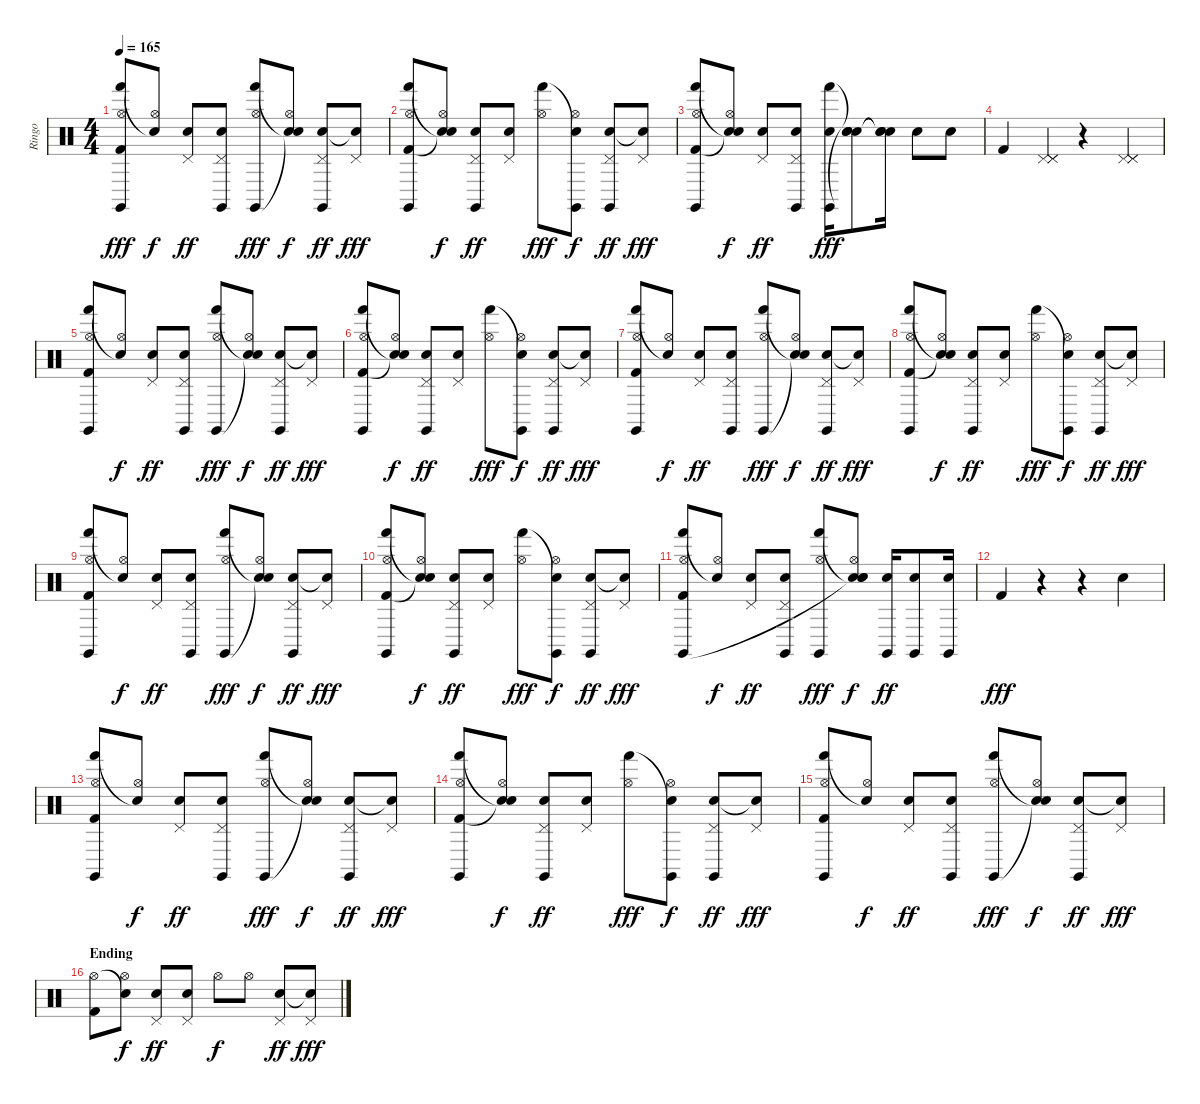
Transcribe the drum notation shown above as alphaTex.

\track ("Ringo" "Ringo") {instrument percussion}
\staff {score}
\articulation defaults
\ts (4 4)
\tempo 165
\clef neutral
\ks c
("Hand (hit)" "Hi-Hat (open)" "Kick (hit) 2" "Claves (hit)").8{dy fff} ("Snare (hit)"{t} "Hi-Hat (open)").8{dy f} ("Pedal Hi-Hat (hit)" "Snare (hit) 2").8{dy ff} ("Pedal Hi-Hat (hit)" "Snare (hit) 2" "Claves (hit)").8 ("Hand (hit)" "Hi-Hat (open)" "Claves (hit)").8{dy fff} ("Snare (hit)"{t} "Hi-Hat (open)" "Snare (hit)"{t}).8{dy f} ("Pedal Hi-Hat (hit)" "Snare (hit) 2" "Claves (hit)").8{dy ff} ("Pedal Hi-Hat (hit)" "Snare (hit)"{t}).8{dy fff} |
("Hand (hit)" "Hi-Hat (open)" "Kick (hit) 2" "Claves (hit)").8 ("Snare (hit)"{t} "Hi-Hat (open)" "Snare (hit)"{t}).8{dy f} ("Pedal Hi-Hat (hit)" "Snare (hit) 2" "Claves (hit)").8{dy ff} ("Pedal Hi-Hat (hit)" "Snare (hit) 2").8 ("Hand (hit)" "Hi-Hat (open)").8{dy fff} ("Snare (hit)"{t} "Hi-Hat (open)" "Claves (hit)").8{dy f} ("Pedal Hi-Hat (hit)" "Snare (hit) 2" "Claves (hit)").8{dy ff} ("Pedal Hi-Hat (hit)" "Snare (hit)"{t}).8{dy fff} |
("Hand (hit)" "Hi-Hat (open)" "Kick (hit) 2" "Claves (hit)").8 ("Snare (hit)"{t} "Hi-Hat (open)" "Snare (hit)"{t}).8{dy f} ("Pedal Hi-Hat (hit)" "Snare (hit) 2").8{dy ff} ("Pedal Hi-Hat (hit)" "Snare (hit) 2" "Claves (hit)").8 ("Hand (hit)" "Snare (hit) 2" "Claves (hit)").16{dy fff} ("Snare (hit)"{t} "Snare (hit) 2" "Snare (hit)"{t}).8 ("Snare (hit)"{t} "Snare (hit) 2" "Snare (hit)"{t}).16 "Snare (hit) 2".8 "Snare (hit) 2".8 |
"Kick (hit) 2".4 ("Pedal Hi-Hat (hit)" "Pedal Hi-Hat (hit)" "Pedal Hi-Hat (hit)").4 r.4 ("Pedal Hi-Hat (hit)" "Pedal Hi-Hat (hit)" "Pedal Hi-Hat (hit)").4 |
("Hand (hit)" "Hi-Hat (open)" "Kick (hit) 2" "Claves (hit)").8 ("Snare (hit)"{t} "Hi-Hat (open)").8{dy f} ("Pedal Hi-Hat (hit)" "Snare (hit) 2").8{dy ff} ("Pedal Hi-Hat (hit)" "Snare (hit) 2" "Claves (hit)").8 ("Hand (hit)" "Hi-Hat (open)" "Claves (hit)").8{dy fff} ("Snare (hit)"{t} "Hi-Hat (open)" "Snare (hit)"{t}).8{dy f} ("Pedal Hi-Hat (hit)" "Snare (hit) 2" "Claves (hit)").8{dy ff} ("Pedal Hi-Hat (hit)" "Snare (hit)"{t}).8{dy fff} |
("Hand (hit)" "Hi-Hat (open)" "Kick (hit) 2" "Claves (hit)").8 ("Snare (hit)"{t} "Hi-Hat (open)" "Snare (hit)"{t}).8{dy f} ("Pedal Hi-Hat (hit)" "Snare (hit) 2" "Claves (hit)").8{dy ff} ("Pedal Hi-Hat (hit)" "Snare (hit) 2").8 ("Hand (hit)" "Hi-Hat (open)").8{dy fff} ("Snare (hit)"{t} "Hi-Hat (open)" "Claves (hit)").8{dy f} ("Pedal Hi-Hat (hit)" "Snare (hit) 2" "Claves (hit)").8{dy ff} ("Pedal Hi-Hat (hit)" "Snare (hit)"{t}).8{dy fff} |
("Hand (hit)" "Hi-Hat (open)" "Kick (hit) 2" "Claves (hit)").8 ("Snare (hit)"{t} "Hi-Hat (open)").8{dy f} ("Pedal Hi-Hat (hit)" "Snare (hit) 2").8{dy ff} ("Pedal Hi-Hat (hit)" "Snare (hit) 2" "Claves (hit)").8 ("Hand (hit)" "Hi-Hat (open)" "Claves (hit)").8{dy fff} ("Snare (hit)"{t} "Hi-Hat (open)" "Snare (hit)"{t}).8{dy f} ("Pedal Hi-Hat (hit)" "Snare (hit) 2" "Claves (hit)").8{dy ff} ("Pedal Hi-Hat (hit)" "Snare (hit)"{t}).8{dy fff} |
("Hand (hit)" "Hi-Hat (open)" "Kick (hit) 2" "Claves (hit)").8 ("Snare (hit)"{t} "Hi-Hat (open)" "Snare (hit)"{t}).8{dy f} ("Pedal Hi-Hat (hit)" "Snare (hit) 2" "Claves (hit)").8{dy ff} ("Pedal Hi-Hat (hit)" "Snare (hit) 2").8 ("Hand (hit)" "Hi-Hat (open)").8{dy fff} ("Snare (hit)"{t} "Hi-Hat (open)" "Claves (hit)").8{dy f} ("Pedal Hi-Hat (hit)" "Snare (hit) 2" "Claves (hit)").8{dy ff} ("Pedal Hi-Hat (hit)" "Snare (hit)"{t}).8{dy fff} |
("Hand (hit)" "Hi-Hat (open)" "Kick (hit) 2" "Claves (hit)").8 ("Snare (hit)"{t} "Hi-Hat (open)").8{dy f} ("Pedal Hi-Hat (hit)" "Snare (hit) 2").8{dy ff} ("Pedal Hi-Hat (hit)" "Snare (hit) 2" "Claves (hit)").8 ("Hand (hit)" "Hi-Hat (open)" "Claves (hit)").8{dy fff} ("Snare (hit)"{t} "Hi-Hat (open)" "Snare (hit)"{t}).8{dy f} ("Pedal Hi-Hat (hit)" "Snare (hit) 2" "Claves (hit)").8{dy ff} ("Pedal Hi-Hat (hit)" "Snare (hit)"{t}).8{dy fff} |
("Hand (hit)" "Hi-Hat (open)" "Kick (hit) 2" "Claves (hit)").8 ("Snare (hit)"{t} "Hi-Hat (open)" "Snare (hit)"{t}).8{dy f} ("Pedal Hi-Hat (hit)" "Snare (hit) 2" "Claves (hit)").8{dy ff} ("Pedal Hi-Hat (hit)" "Snare (hit) 2").8 ("Hand (hit)" "Hi-Hat (open)").8{dy fff} ("Snare (hit)"{t} "Hi-Hat (open)" "Claves (hit)").8{dy f} ("Pedal Hi-Hat (hit)" "Snare (hit) 2" "Claves (hit)").8{dy ff} ("Pedal Hi-Hat (hit)" "Snare (hit)"{t}).8{dy fff} |
("Hand (hit)" "Hi-Hat (open)" "Kick (hit) 2" "Claves (hit)").8 ("Snare (hit)"{t} "Hi-Hat (open)").8{dy f} ("Pedal Hi-Hat (hit)" "Snare (hit) 2").8{dy ff} ("Pedal Hi-Hat (hit)" "Snare (hit) 2" "Claves (hit)").8 ("Hand (hit)" "Hi-Hat (open)" "Claves (hit)").8{dy fff} ("Snare (hit)"{t} "Hi-Hat (open)" "Snare (hit) 2" "Snare (hit)"{t}).8{dy f} ("Snare (hit) 2" "Claves (hit)").16{dy ff} ("Snare (hit) 2" "Claves (hit)").8 ("Snare (hit) 2" "Claves (hit)").16 |
"Kick (hit) 2".4{dy fff} r.4 r.4 "Snare (hit) 2".4 |
("Hand (hit)" "Hi-Hat (open)" "Kick (hit) 2" "Claves (hit)").8 ("Snare (hit)"{t} "Hi-Hat (open)").8{dy f} ("Pedal Hi-Hat (hit)" "Snare (hit) 2").8{dy ff} ("Pedal Hi-Hat (hit)" "Snare (hit) 2" "Claves (hit)").8 ("Hand (hit)" "Hi-Hat (open)" "Claves (hit)").8{dy fff} ("Snare (hit)"{t} "Hi-Hat (open)" "Snare (hit)"{t}).8{dy f} ("Pedal Hi-Hat (hit)" "Snare (hit) 2" "Claves (hit)").8{dy ff} ("Pedal Hi-Hat (hit)" "Snare (hit)"{t}).8{dy fff} |
("Hand (hit)" "Hi-Hat (open)" "Kick (hit) 2" "Claves (hit)").8 ("Snare (hit)"{t} "Hi-Hat (open)" "Snare (hit)"{t}).8{dy f} ("Pedal Hi-Hat (hit)" "Snare (hit) 2" "Claves (hit)").8{dy ff} ("Pedal Hi-Hat (hit)" "Snare (hit) 2").8 ("Hand (hit)" "Hi-Hat (open)").8{dy fff} ("Snare (hit)"{t} "Hi-Hat (open)" "Claves (hit)").8{dy f} ("Pedal Hi-Hat (hit)" "Snare (hit) 2" "Claves (hit)").8{dy ff} ("Pedal Hi-Hat (hit)" "Snare (hit)"{t}).8{dy fff} |
("Hand (hit)" "Hi-Hat (open)" "Kick (hit) 2" "Claves (hit)").8 ("Snare (hit)"{t} "Hi-Hat (open)").8{dy f} ("Pedal Hi-Hat (hit)" "Snare (hit) 2").8{dy ff} ("Pedal Hi-Hat (hit)" "Snare (hit) 2" "Claves (hit)").8 ("Hand (hit)" "Hi-Hat (open)" "Claves (hit)").8{dy fff} ("Snare (hit)"{t} "Hi-Hat (open)" "Snare (hit)"{t}).8{dy f} ("Pedal Hi-Hat (hit)" "Snare (hit) 2" "Claves (hit)").8{dy ff} ("Pedal Hi-Hat (hit)" "Snare (hit)"{t}).8{dy fff} |
\section ("" "Ending")
("Hi-Hat (open)" "Kick (hit) 2").8{volume 11} ("Snare (hit)"{t} "Hi-Hat (open)").8{dy f} ("Pedal Hi-Hat (hit)" "Snare (hit) 2").8{dy ff} ("Pedal Hi-Hat (hit)" "Snare (hit) 2").8 "Hi-Hat (open)".8{dy f} "Hi-Hat (open)".8 ("Pedal Hi-Hat (hit)" "Snare (hit) 2").8{dy ff} ("Pedal Hi-Hat (hit)" "Snare (hit)"{t}).8{dy fff}
